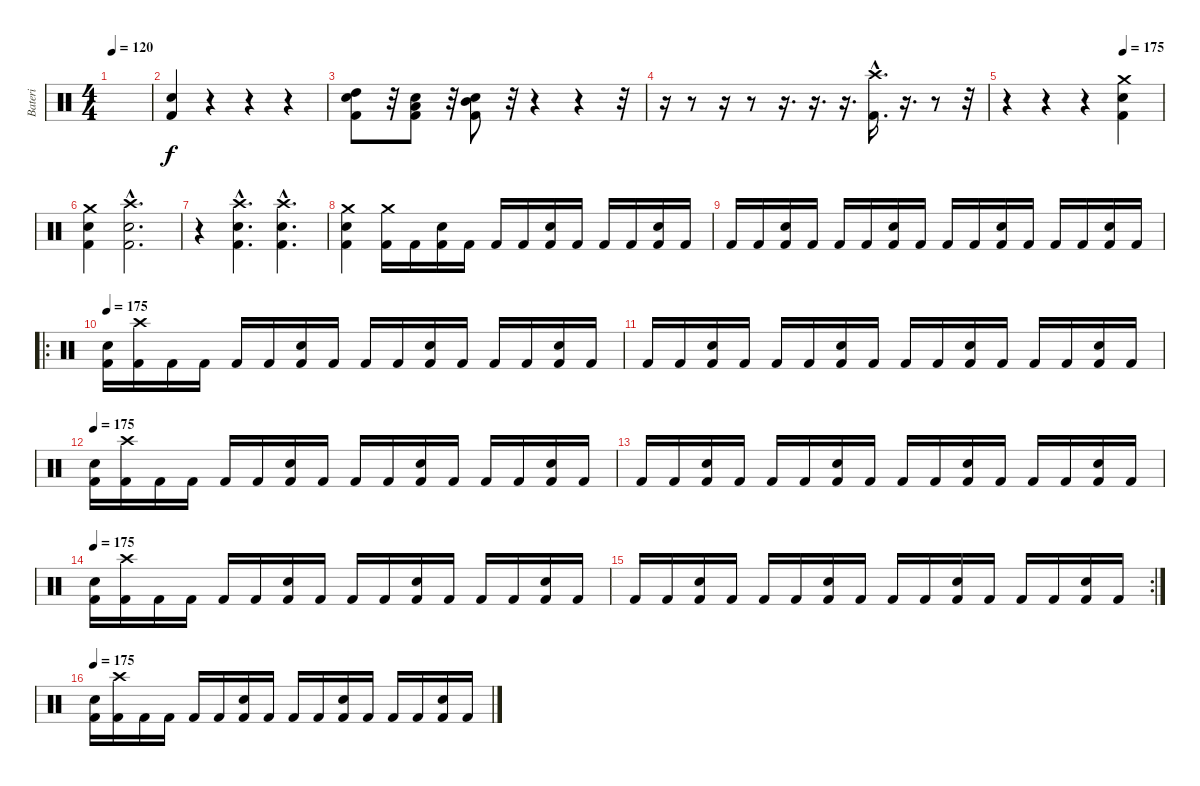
\track ("Bateri" "Bateri") {instrument percussion}
\staff {score}
\articulation defaults
\ts (4 4)
\tempo 120
\clef neutral
\ks c
|
("Snare (hit) 2" "Kick (hit) 2").4 r.4 r.4 r.4 |
("Snare (hit) 2" "High Tom (hit)" "Kick (hit) 2").8 r.32 ("Snare (hit) 2" "Low Tom (hit)" "Kick (hit) 2").8 r.32 ("Snare (hit) 2" "Mid Tom (hit)" "Kick (hit) 2").8 r.32 r.4 r.4 r.32 |
r.16 r.8 r.16 r.8 r.16{d} r.16{d} r.16{d} ("Crash high (hit)"{hac} "Kick (hit) 2"{hac}).16{d} r.16{d} r.8 r.32 |
\section ("" "")
\tempo (175 0.75)
r.4 r.4 r.4 ("Crash medium (hit)" "Snare (hit) 2" "Kick (hit) 2").4 |
("Crash medium (hit)" "Snare (hit) 2" "Kick (hit) 2").4 ("Crash high (hit)"{hac} "Snare (hit) 2"{hac} "Kick (hit) 2"{hac}).2{d} |
r.4 ("Crash high (hit)"{hac} "Snare (hit) 2"{hac} "Kick (hit) 2"{hac}).4{d} ("Crash high (hit)"{hac} "Snare (hit) 2"{hac} "Kick (hit) 2"{hac}).4{d} |
("Crash medium (hit)" "Snare (hit) 2" "Kick (hit) 2").4 ("Crash medium (hit)" "Kick (hit) 2").16 "Kick (hit) 2".16 ("Snare (hit) 2" "Kick (hit) 2").16 "Kick (hit) 2".16 "Kick (hit) 2".16 "Kick (hit) 2".16 ("Snare (hit) 2" "Kick (hit) 2").16 "Kick (hit) 2".16 "Kick (hit) 2".16 "Kick (hit) 2".16 ("Snare (hit) 2" "Kick (hit) 2").16 "Kick (hit) 2".16 |
"Kick (hit) 2".16 "Kick (hit) 2".16 ("Snare (hit) 2" "Kick (hit) 2").16 "Kick (hit) 2".16 "Kick (hit) 2".16 "Kick (hit) 2".16 ("Snare (hit) 2" "Kick (hit) 2").16 "Kick (hit) 2".16 "Kick (hit) 2".16 "Kick (hit) 2".16 ("Snare (hit) 2" "Kick (hit) 2").16 "Kick (hit) 2".16 "Kick (hit) 2".16 "Kick (hit) 2".16 ("Snare (hit) 2" "Kick (hit) 2").16 "Kick (hit) 2".16 |
\ro
\tempo 175
("Snare (hit) 2" "Kick (hit) 2").16 ("Crash high (hit)" "Kick (hit) 2").16 "Kick (hit) 2".16 "Kick (hit) 2".16 "Kick (hit) 2".16 "Kick (hit) 2".16 ("Snare (hit) 2" "Kick (hit) 2").16 "Kick (hit) 2".16 "Kick (hit) 2".16 "Kick (hit) 2".16 ("Snare (hit) 2" "Kick (hit) 2").16 "Kick (hit) 2".16 "Kick (hit) 2".16 "Kick (hit) 2".16 ("Snare (hit) 2" "Kick (hit) 2").16 "Kick (hit) 2".16 |
"Kick (hit) 2".16 "Kick (hit) 2".16 ("Snare (hit) 2" "Kick (hit) 2").16 "Kick (hit) 2".16 "Kick (hit) 2".16 "Kick (hit) 2".16 ("Snare (hit) 2" "Kick (hit) 2").16 "Kick (hit) 2".16 "Kick (hit) 2".16 "Kick (hit) 2".16 ("Snare (hit) 2" "Kick (hit) 2").16 "Kick (hit) 2".16 "Kick (hit) 2".16 "Kick (hit) 2".16 ("Snare (hit) 2" "Kick (hit) 2").16 "Kick (hit) 2".16 |
\tempo 175
("Snare (hit) 2" "Kick (hit) 2").16 ("Crash high (hit)" "Kick (hit) 2").16 "Kick (hit) 2".16 "Kick (hit) 2".16 "Kick (hit) 2".16 "Kick (hit) 2".16 ("Snare (hit) 2" "Kick (hit) 2").16 "Kick (hit) 2".16 "Kick (hit) 2".16 "Kick (hit) 2".16 ("Snare (hit) 2" "Kick (hit) 2").16 "Kick (hit) 2".16 "Kick (hit) 2".16 "Kick (hit) 2".16 ("Snare (hit) 2" "Kick (hit) 2").16 "Kick (hit) 2".16 |
"Kick (hit) 2".16 "Kick (hit) 2".16 ("Snare (hit) 2" "Kick (hit) 2").16 "Kick (hit) 2".16 "Kick (hit) 2".16 "Kick (hit) 2".16 ("Snare (hit) 2" "Kick (hit) 2").16 "Kick (hit) 2".16 "Kick (hit) 2".16 "Kick (hit) 2".16 ("Snare (hit) 2" "Kick (hit) 2").16 "Kick (hit) 2".16 "Kick (hit) 2".16 "Kick (hit) 2".16 ("Snare (hit) 2" "Kick (hit) 2").16 "Kick (hit) 2".16 |
\tempo 175
("Snare (hit) 2" "Kick (hit) 2").16 ("Crash high (hit)" "Kick (hit) 2").16 "Kick (hit) 2".16 "Kick (hit) 2".16 "Kick (hit) 2".16 "Kick (hit) 2".16 ("Snare (hit) 2" "Kick (hit) 2").16 "Kick (hit) 2".16 "Kick (hit) 2".16 "Kick (hit) 2".16 ("Snare (hit) 2" "Kick (hit) 2").16 "Kick (hit) 2".16 "Kick (hit) 2".16 "Kick (hit) 2".16 ("Snare (hit) 2" "Kick (hit) 2").16 "Kick (hit) 2".16 |
\rc 2 "Kick (hit) 2".16 "Kick (hit) 2".16
("Snare (hit) 2" "Kick (hit) 2").16 "Kick (hit) 2".16 "Kick (hit) 2".16 "Kick (hit) 2".16 ("Snare (hit) 2" "Kick (hit) 2").16 "Kick (hit) 2".16 "Kick (hit) 2".16 "Kick (hit) 2".16 ("Snare (hit) 2" "Kick (hit) 2").16 "Kick (hit) 2".16 "Kick (hit) 2".16 "Kick (hit) 2".16 ("Snare (hit) 2" "Kick (hit) 2").16 "Kick (hit) 2".16 |
\tempo 175
("Snare (hit) 2" "Kick (hit) 2").16 ("Crash high (hit)" "Kick (hit) 2").16 "Kick (hit) 2".16 "Kick (hit) 2".16 "Kick (hit) 2".16 "Kick (hit) 2".16 ("Snare (hit) 2" "Kick (hit) 2").16 "Kick (hit) 2".16 "Kick (hit) 2".16 "Kick (hit) 2".16 ("Snare (hit) 2" "Kick (hit) 2").16 "Kick (hit) 2".16 "Kick (hit) 2".16 "Kick (hit) 2".16 ("Snare (hit) 2" "Kick (hit) 2").16 "Kick (hit) 2".16
